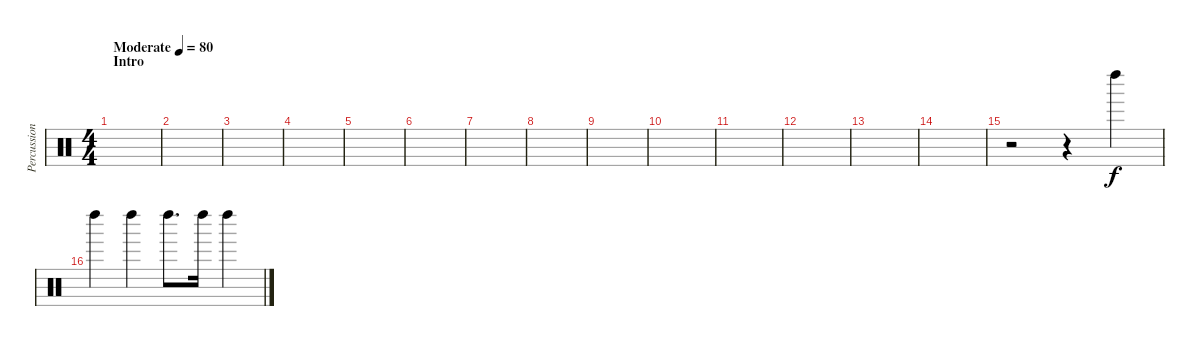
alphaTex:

\track ("Percussion" "Percussion") {instrument percussion}
\staff {score}
\articulation defaults
\ts (4 4)
\section ("" "Intro")
\tempo (80 "Moderate")
\clef neutral
\ks c
|
|
|
|
|
|
|
|
|
|
|
|
|
|
r.2 r.4 "Left Maraca (hit)".4 |
"Left Maraca (hit)".4 "Left Maraca (hit)".4 "Left Maraca (hit)".8{d} "Left Maraca (hit)".16 "Left Maraca (hit)".4
